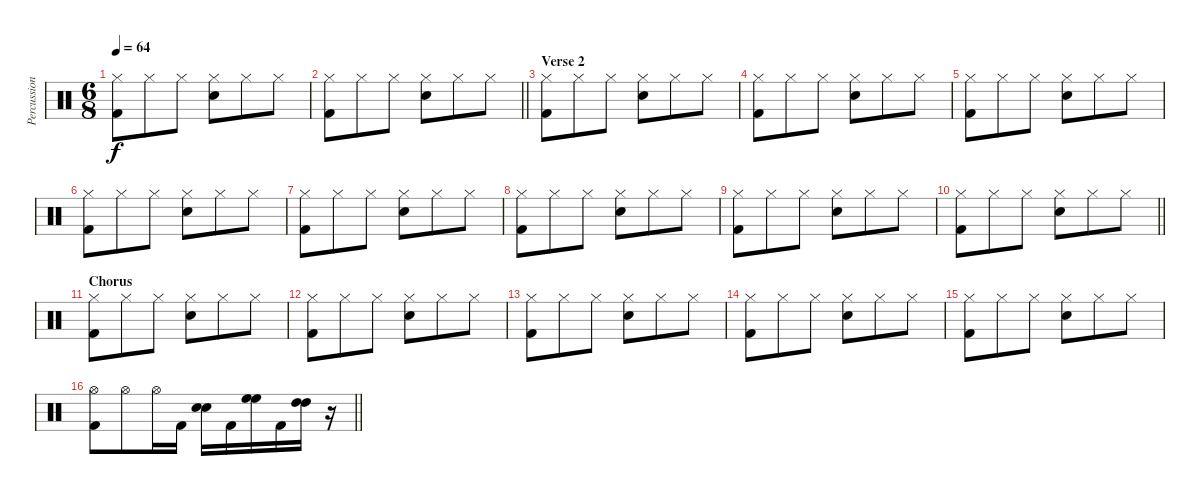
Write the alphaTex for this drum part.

\track ("Percussion" "Percussion") {instrument percussion}
\staff {score}
\articulation defaults
\ts (6 8)
\tempo 64
\clef neutral
\ks c
("Hi-Hat (closed)" "Kick (hit) 2").8{dy f} "Hi-Hat (closed)".8 "Hi-Hat (closed)".8 ("Hi-Hat (closed)" "Electric Snare (hit)").8 "Hi-Hat (closed)".8 "Hi-Hat (closed)".8 |
\barLineRight lightlight
("Hi-Hat (closed)" "Kick (hit) 2").8 "Hi-Hat (closed)".8 "Hi-Hat (closed)".8 ("Hi-Hat (closed)" "Electric Snare (hit)").8 "Hi-Hat (closed)".8 "Hi-Hat (closed)".8 |
\section ("" "Verse 2")
("Hi-Hat (closed)" "Kick (hit) 2").8 "Hi-Hat (closed)".8 "Hi-Hat (closed)".8 ("Hi-Hat (closed)" "Electric Snare (hit)").8 "Hi-Hat (closed)".8 "Hi-Hat (closed)".8 |
("Hi-Hat (closed)" "Kick (hit) 2").8 "Hi-Hat (closed)".8 "Hi-Hat (closed)".8 ("Hi-Hat (closed)" "Electric Snare (hit)").8 "Hi-Hat (closed)".8 "Hi-Hat (closed)".8 |
("Hi-Hat (closed)" "Kick (hit) 2").8 "Hi-Hat (closed)".8 "Hi-Hat (closed)".8 ("Hi-Hat (closed)" "Electric Snare (hit)").8 "Hi-Hat (closed)".8 "Hi-Hat (closed)".8 |
("Hi-Hat (closed)" "Kick (hit) 2").8 "Hi-Hat (closed)".8 "Hi-Hat (closed)".8 ("Hi-Hat (closed)" "Electric Snare (hit)").8 "Hi-Hat (closed)".8 "Hi-Hat (closed)".8 |
("Hi-Hat (closed)" "Kick (hit) 2").8 "Hi-Hat (closed)".8 "Hi-Hat (closed)".8 ("Hi-Hat (closed)" "Electric Snare (hit)").8 "Hi-Hat (closed)".8 "Hi-Hat (closed)".8 |
("Hi-Hat (closed)" "Kick (hit) 2").8 "Hi-Hat (closed)".8 "Hi-Hat (closed)".8 ("Hi-Hat (closed)" "Electric Snare (hit)").8 "Hi-Hat (closed)".8 "Hi-Hat (closed)".8 |
("Hi-Hat (closed)" "Kick (hit) 2").8 "Hi-Hat (closed)".8 "Hi-Hat (closed)".8 ("Hi-Hat (closed)" "Electric Snare (hit)").8 "Hi-Hat (closed)".8 "Hi-Hat (closed)".8 |
\barLineRight lightlight
("Hi-Hat (closed)" "Kick (hit) 2").8 "Hi-Hat (closed)".8 "Hi-Hat (closed)".8 ("Hi-Hat (closed)" "Electric Snare (hit)").8 "Hi-Hat (closed)".8 "Hi-Hat (closed)".8 |
\section ("" "Chorus")
("Hi-Hat (closed)" "Kick (hit) 2").8 "Hi-Hat (closed)".8 "Hi-Hat (closed)".8 ("Hi-Hat (closed)" "Electric Snare (hit)").8 "Hi-Hat (closed)".8 "Hi-Hat (closed)".8 |
("Hi-Hat (closed)" "Kick (hit) 2").8 "Hi-Hat (closed)".8 "Hi-Hat (closed)".8 ("Hi-Hat (closed)" "Electric Snare (hit)").8 "Hi-Hat (closed)".8 "Hi-Hat (closed)".8 |
("Hi-Hat (closed)" "Kick (hit) 2").8 "Hi-Hat (closed)".8 "Hi-Hat (closed)".8 ("Hi-Hat (closed)" "Electric Snare (hit)").8 "Hi-Hat (closed)".8 "Hi-Hat (closed)".8 |
("Hi-Hat (closed)" "Kick (hit) 2").8 "Hi-Hat (closed)".8 "Hi-Hat (closed)".8 ("Hi-Hat (closed)" "Electric Snare (hit)").8 "Hi-Hat (closed)".8 "Hi-Hat (closed)".8 |
("Hi-Hat (closed)" "Kick (hit) 2").8 "Hi-Hat (closed)".8 "Hi-Hat (closed)".8 ("Hi-Hat (closed)" "Electric Snare (hit)").8 "Hi-Hat (closed)".8 "Hi-Hat (closed)".8 |
\barLineRight lightlight
("Hi-Hat (open)" "Kick (hit) 2").8 "Hi-Hat (open)".8 "Hi-Hat (open)".16 "Kick (hit) 2".16 ("Electric Snare (hit)" "Electric Snare (hit)").16 "Kick (hit) 2".16 ("High Floor Tom (hit)" "High Floor Tom (hit)").16 "Kick (hit) 2".16 ("High Tom (hit)" "High Tom (hit)").16 r.16
